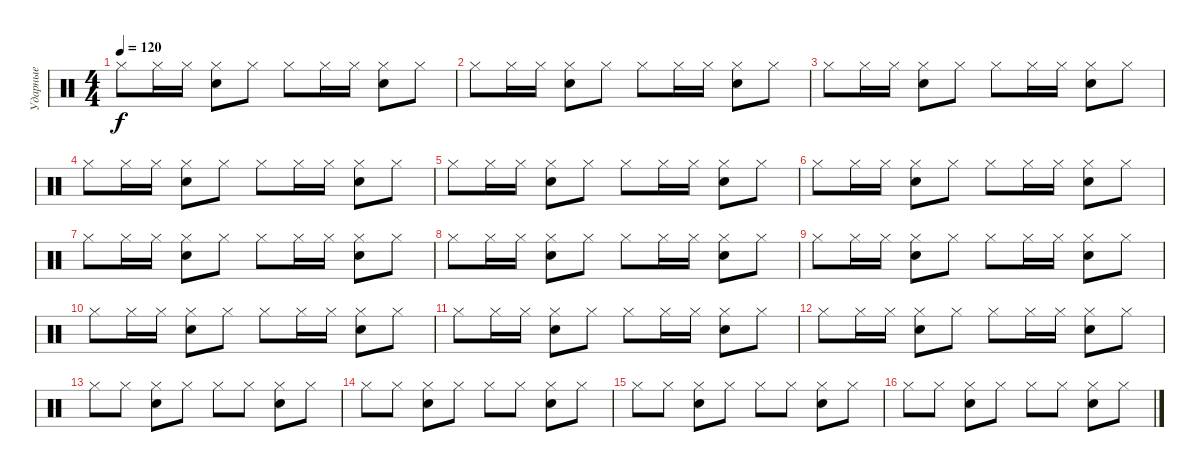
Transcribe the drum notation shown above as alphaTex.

\track ("Ударные" "Ударные") {instrument percussion}
\staff {score}
\articulation defaults
\ts (4 4)
\tempo 120
\clef neutral
\ks c "Hi-Hat (closed)".8{dy f} "Hi-Hat (closed)".16 "Hi-Hat (closed)".16
("Hi-Hat (closed)" "Electric Snare (hit)").8 "Hi-Hat (closed)".8 "Hi-Hat (closed)".8 "Hi-Hat (closed)".16 "Hi-Hat (closed)".16 ("Hi-Hat (closed)" "Electric Snare (hit)").8 "Hi-Hat (closed)".8 |
"Hi-Hat (closed)".8 "Hi-Hat (closed)".16 "Hi-Hat (closed)".16 ("Hi-Hat (closed)" "Electric Snare (hit)").8 "Hi-Hat (closed)".8 "Hi-Hat (closed)".8 "Hi-Hat (closed)".16 "Hi-Hat (closed)".16 ("Hi-Hat (closed)" "Electric Snare (hit)").8 "Hi-Hat (closed)".8 |
"Hi-Hat (closed)".8 "Hi-Hat (closed)".16 "Hi-Hat (closed)".16 ("Hi-Hat (closed)" "Electric Snare (hit)").8 "Hi-Hat (closed)".8 "Hi-Hat (closed)".8 "Hi-Hat (closed)".16 "Hi-Hat (closed)".16 ("Hi-Hat (closed)" "Electric Snare (hit)").8 "Hi-Hat (closed)".8 |
"Hi-Hat (closed)".8 "Hi-Hat (closed)".16 "Hi-Hat (closed)".16 ("Hi-Hat (closed)" "Electric Snare (hit)").8 "Hi-Hat (closed)".8 "Hi-Hat (closed)".8 "Hi-Hat (closed)".16 "Hi-Hat (closed)".16 ("Hi-Hat (closed)" "Electric Snare (hit)").8 "Hi-Hat (closed)".8 |
"Hi-Hat (closed)".8 "Hi-Hat (closed)".16 "Hi-Hat (closed)".16 ("Hi-Hat (closed)" "Electric Snare (hit)").8 "Hi-Hat (closed)".8 "Hi-Hat (closed)".8 "Hi-Hat (closed)".16 "Hi-Hat (closed)".16 ("Hi-Hat (closed)" "Electric Snare (hit)").8 "Hi-Hat (closed)".8 |
"Hi-Hat (closed)".8 "Hi-Hat (closed)".16 "Hi-Hat (closed)".16 ("Hi-Hat (closed)" "Electric Snare (hit)").8 "Hi-Hat (closed)".8 "Hi-Hat (closed)".8 "Hi-Hat (closed)".16 "Hi-Hat (closed)".16 ("Hi-Hat (closed)" "Electric Snare (hit)").8 "Hi-Hat (closed)".8 |
"Hi-Hat (closed)".8 "Hi-Hat (closed)".16 "Hi-Hat (closed)".16 ("Hi-Hat (closed)" "Electric Snare (hit)").8 "Hi-Hat (closed)".8 "Hi-Hat (closed)".8 "Hi-Hat (closed)".16 "Hi-Hat (closed)".16 ("Hi-Hat (closed)" "Electric Snare (hit)").8 "Hi-Hat (closed)".8 |
"Hi-Hat (closed)".8 "Hi-Hat (closed)".16 "Hi-Hat (closed)".16 ("Hi-Hat (closed)" "Electric Snare (hit)").8 "Hi-Hat (closed)".8 "Hi-Hat (closed)".8 "Hi-Hat (closed)".16 "Hi-Hat (closed)".16 ("Hi-Hat (closed)" "Electric Snare (hit)").8 "Hi-Hat (closed)".8 |
"Hi-Hat (closed)".8 "Hi-Hat (closed)".16 "Hi-Hat (closed)".16 ("Hi-Hat (closed)" "Electric Snare (hit)").8 "Hi-Hat (closed)".8 "Hi-Hat (closed)".8 "Hi-Hat (closed)".16 "Hi-Hat (closed)".16 ("Hi-Hat (closed)" "Electric Snare (hit)").8 "Hi-Hat (closed)".8 |
"Hi-Hat (closed)".8 "Hi-Hat (closed)".16 "Hi-Hat (closed)".16 ("Hi-Hat (closed)" "Electric Snare (hit)").8 "Hi-Hat (closed)".8 "Hi-Hat (closed)".8 "Hi-Hat (closed)".16 "Hi-Hat (closed)".16 ("Hi-Hat (closed)" "Electric Snare (hit)").8 "Hi-Hat (closed)".8 |
"Hi-Hat (closed)".8 "Hi-Hat (closed)".16 "Hi-Hat (closed)".16 ("Hi-Hat (closed)" "Electric Snare (hit)").8 "Hi-Hat (closed)".8 "Hi-Hat (closed)".8 "Hi-Hat (closed)".16 "Hi-Hat (closed)".16 ("Hi-Hat (closed)" "Electric Snare (hit)").8 "Hi-Hat (closed)".8 |
"Hi-Hat (closed)".8 "Hi-Hat (closed)".16 "Hi-Hat (closed)".16 ("Hi-Hat (closed)" "Electric Snare (hit)").8 "Hi-Hat (closed)".8 "Hi-Hat (closed)".8 "Hi-Hat (closed)".16 "Hi-Hat (closed)".16 ("Hi-Hat (closed)" "Electric Snare (hit)").8 "Hi-Hat (closed)".8 |
"Hi-Hat (closed)".8 "Hi-Hat (closed)".8 ("Hi-Hat (closed)" "Electric Snare (hit)").8 "Hi-Hat (closed)".8 "Hi-Hat (closed)".8 "Hi-Hat (closed)".8 ("Hi-Hat (closed)" "Electric Snare (hit)").8 "Hi-Hat (closed)".8 |
"Hi-Hat (closed)".8 "Hi-Hat (closed)".8 ("Hi-Hat (closed)" "Electric Snare (hit)").8 "Hi-Hat (closed)".8 "Hi-Hat (closed)".8 "Hi-Hat (closed)".8 ("Hi-Hat (closed)" "Electric Snare (hit)").8 "Hi-Hat (closed)".8 |
"Hi-Hat (closed)".8 "Hi-Hat (closed)".8 ("Hi-Hat (closed)" "Electric Snare (hit)").8 "Hi-Hat (closed)".8 "Hi-Hat (closed)".8 "Hi-Hat (closed)".8 ("Hi-Hat (closed)" "Electric Snare (hit)").8 "Hi-Hat (closed)".8 |
"Hi-Hat (closed)".8 "Hi-Hat (closed)".8 ("Hi-Hat (closed)" "Electric Snare (hit)").8 "Hi-Hat (closed)".8 "Hi-Hat (closed)".8 "Hi-Hat (closed)".8 ("Hi-Hat (closed)" "Electric Snare (hit)").8 "Hi-Hat (closed)".8
